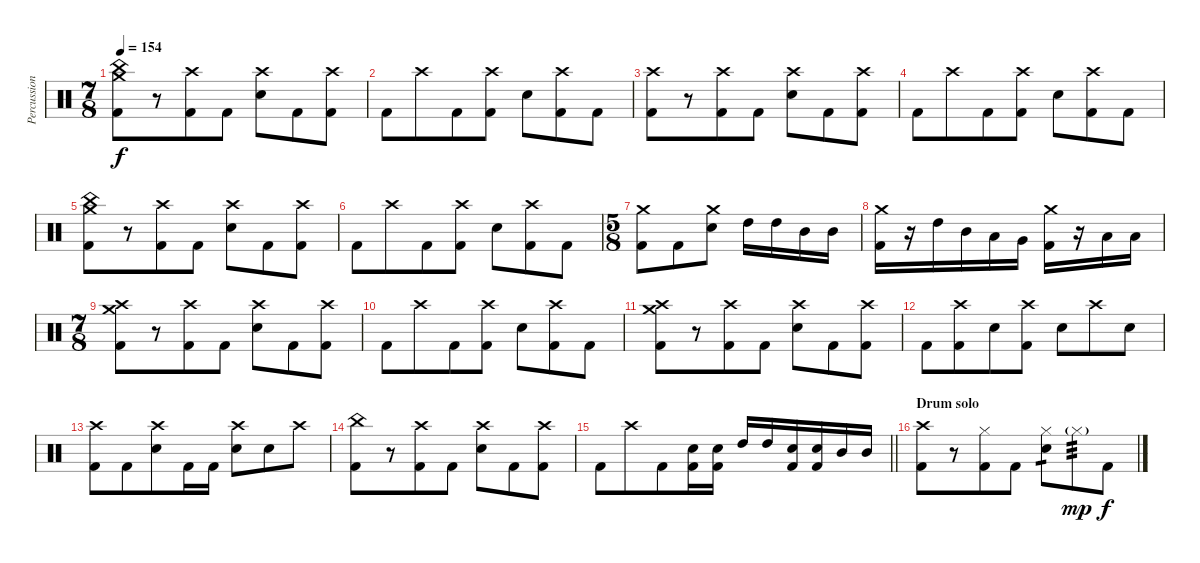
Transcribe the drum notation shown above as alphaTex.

\track ("Percussions" "Percussion") {instrument percussion}
\staff {score}
\articulation defaults
\ts (7 8)
\tempo 154
\clef neutral
\ks c
("China (hit)" "Crash medium (hit)" "Kick (hit) 2").8{dy f} r.8 ("Crash high (hit)" "Kick (hit) 2").8 "Kick (hit) 2".8 ("Crash high (hit)" "Electric Snare (hit)").8 "Kick (hit) 2".8 ("Crash high (hit)" "Kick (hit) 2").8 |
"Kick (hit) 2".8 "Crash high (hit)".8 "Kick (hit) 2".8 ("Crash high (hit)" "Kick (hit) 2").8 "Electric Snare (hit)".8 ("Crash high (hit)" "Kick (hit) 2").8 "Kick (hit) 2".8 |
("Crash high (hit)" "Kick (hit) 2").8 r.8 ("Crash high (hit)" "Kick (hit) 2").8 "Kick (hit) 2".8 ("Crash high (hit)" "Electric Snare (hit)").8 "Kick (hit) 2".8 ("Crash high (hit)" "Kick (hit) 2").8 |
"Kick (hit) 2".8 "Crash high (hit)".8 "Kick (hit) 2".8 ("Crash high (hit)" "Kick (hit) 2").8 "Electric Snare (hit)".8 ("Crash high (hit)" "Kick (hit) 2").8 "Kick (hit) 2".8 |
("China (hit)" "Crash medium (hit)" "Kick (hit) 2").8 r.8 ("Crash high (hit)" "Kick (hit) 2").8 "Kick (hit) 2".8 ("Crash high (hit)" "Electric Snare (hit)").8 "Kick (hit) 2".8 ("Crash high (hit)" "Kick (hit) 2").8 |
"Kick (hit) 2".8 "Crash high (hit)".8 "Kick (hit) 2".8 ("Crash high (hit)" "Kick (hit) 2").8 "Electric Snare (hit)".8 ("Crash high (hit)" "Kick (hit) 2").8 "Kick (hit) 2".8 |
\ts (5 8)
("Crash medium (hit)" "Kick (hit) 2").8 "Kick (hit) 2".8 ("Crash medium (hit)" "Electric Snare (hit)").8 "High Tom (hit)".16 "High Tom (hit)".16 "Mid Tom (hit)".16 "Mid Tom (hit)".16 |
("Crash medium (hit)" "Kick (hit) 2").16 r.16 "High Tom (hit)".16 "Mid Tom (hit)".16 "Low Tom (hit)".16 "Very Low Tom (hit)".16 ("Crash medium (hit)" "Kick (hit) 2").16 r.16 "Low Tom (hit)".16 "Low Tom (hit)".16 |
\ts (7 8)
("Crash high (hit)" "Crash medium (hit)" "Kick (hit) 2").8 r.8 ("Crash high (hit)" "Kick (hit) 2").8 "Kick (hit) 2".8 ("Crash high (hit)" "Electric Snare (hit)").8 "Kick (hit) 2".8 ("Crash high (hit)" "Kick (hit) 2").8 |
"Kick (hit) 2".8 "Crash high (hit)".8 "Kick (hit) 2".8 ("Crash high (hit)" "Kick (hit) 2").8 "Electric Snare (hit)".8 ("Crash high (hit)" "Kick (hit) 2").8 "Kick (hit) 2".8 |
("Crash high (hit)" "Crash medium (hit)" "Kick (hit) 2").8 r.8 ("Crash high (hit)" "Kick (hit) 2").8 "Kick (hit) 2".8 ("Crash high (hit)" "Electric Snare (hit)").8 "Kick (hit) 2".8 ("Crash high (hit)" "Kick (hit) 2").8 |
"Kick (hit) 2".8 ("Crash high (hit)" "Kick (hit) 2").8 "Electric Snare (hit)".8 ("Crash high (hit)" "Kick (hit) 2").8 "Electric Snare (hit)".8 "Crash high (hit)".8 "Electric Snare (hit)".8 |
("Crash high (hit)" "Kick (hit) 2").8 "Kick (hit) 2".8 ("Crash high (hit)" "Electric Snare (hit)").8 "Kick (hit) 2".16 "Kick (hit) 2".16 ("Crash high (hit)" "Electric Snare (hit)").8 "Electric Snare (hit)".8 "Crash high (hit)".8 |
("China (hit)" "Kick (hit) 2").8 r.8 ("Crash high (hit)" "Kick (hit) 2").8 "Kick (hit) 2".8 ("Crash high (hit)" "Electric Snare (hit)").8 "Kick (hit) 2".8 ("Crash high (hit)" "Kick (hit) 2").8 |
\barLineRight lightlight "Kick (hit) 2".8 "Crash high (hit)".8 "Kick (hit) 2".8
("Electric Snare (hit)" "Kick (hit) 2").16 ("Electric Snare (hit)" "Kick (hit) 2").16 "High Tom (hit)".16 "High Tom (hit)".16 ("Electric Snare (hit)" "Kick (hit) 2").16 ("Electric Snare (hit)" "Kick (hit) 2").16 "Mid Tom (hit)".16 "Mid Tom (hit)".16 |
\section ("" "Drum solo")
("Crash high (hit)" "Kick (hit) 2").8 r.8 ("Hi-Hat (closed)" "Kick (hit) 2").8 "Kick (hit) 2".8 ("Hi-Hat (closed)" "Electric Snare (hit)").8{tp 1} "Hi-Hat (closed)"{g}.8{tp 3 dy mp} "Kick (hit) 2".8{dy f}
